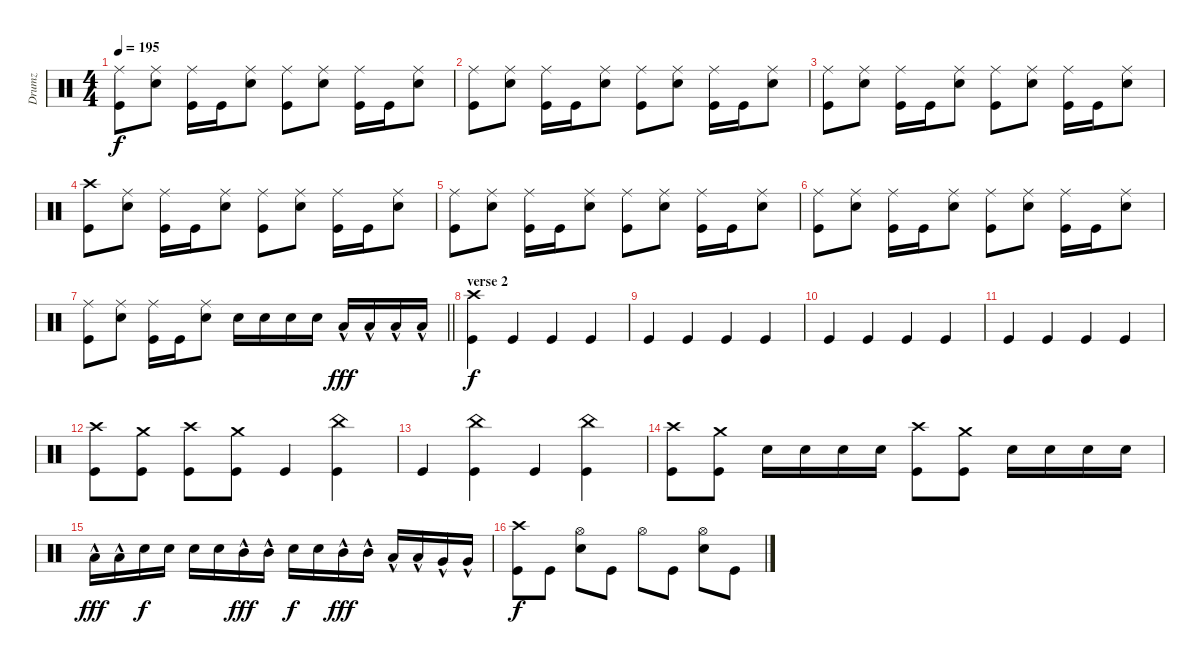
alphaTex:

\track ("Drumz" "Drumz") {instrument percussion}
\staff {score}
\articulation defaults
\ts (4 4)
\tempo 195
\clef neutral
\ks c
("Ride (middle)" "Kick (hit)").8{dy f} ("Ride (middle)" "Electric Snare (hit)").8 ("Ride (middle)" "Kick (hit)").16 "Kick (hit)".16 ("Ride (middle)" "Electric Snare (hit)").8 ("Ride (middle)" "Kick (hit)").8 ("Ride (middle)" "Electric Snare (hit)").8 ("Ride (middle)" "Kick (hit)").16 "Kick (hit)".16 ("Ride (middle)" "Electric Snare (hit)").8 |
("Ride (middle)" "Kick (hit)").8 ("Ride (middle)" "Electric Snare (hit)").8 ("Ride (middle)" "Kick (hit)").16 "Kick (hit)".16 ("Ride (middle)" "Electric Snare (hit)").8 ("Ride (middle)" "Kick (hit)").8 ("Ride (middle)" "Electric Snare (hit)").8 ("Ride (middle)" "Kick (hit)").16 "Kick (hit)".16 ("Ride (middle)" "Electric Snare (hit)").8 |
("Ride (middle)" "Kick (hit)").8 ("Ride (middle)" "Electric Snare (hit)").8 ("Ride (middle)" "Kick (hit)").16 "Kick (hit)".16 ("Ride (middle)" "Electric Snare (hit)").8 ("Ride (middle)" "Kick (hit)").8 ("Ride (middle)" "Electric Snare (hit)").8 ("Ride (middle)" "Kick (hit)").16 "Kick (hit)".16 ("Ride (middle)" "Electric Snare (hit)").8 |
("Crash high (hit)" "Kick (hit)").8 ("Ride (middle)" "Electric Snare (hit)").8 ("Ride (middle)" "Kick (hit)").16 "Kick (hit)".16 ("Ride (middle)" "Electric Snare (hit)").8 ("Ride (middle)" "Kick (hit)").8 ("Ride (middle)" "Electric Snare (hit)").8 ("Ride (middle)" "Kick (hit)").16 "Kick (hit)".16 ("Ride (middle)" "Electric Snare (hit)").8 |
("Ride (middle)" "Kick (hit)").8 ("Ride (middle)" "Electric Snare (hit)").8 ("Ride (middle)" "Kick (hit)").16 "Kick (hit)".16 ("Ride (middle)" "Electric Snare (hit)").8 ("Ride (middle)" "Kick (hit)").8 ("Ride (middle)" "Electric Snare (hit)").8 ("Ride (middle)" "Kick (hit)").16 "Kick (hit)".16 ("Ride (middle)" "Electric Snare (hit)").8 |
("Ride (middle)" "Kick (hit)").8 ("Ride (middle)" "Electric Snare (hit)").8 ("Ride (middle)" "Kick (hit)").16 "Kick (hit)".16 ("Ride (middle)" "Electric Snare (hit)").8 ("Ride (middle)" "Kick (hit)").8 ("Ride (middle)" "Electric Snare (hit)").8 ("Ride (middle)" "Kick (hit)").16 "Kick (hit)".16 ("Ride (middle)" "Electric Snare (hit)").8 |
\barLineRight lightlight
("Ride (middle)" "Kick (hit)").8 ("Ride (middle)" "Electric Snare (hit)").8 ("Ride (middle)" "Kick (hit)").16 "Kick (hit)".16 ("Ride (middle)" "Electric Snare (hit)").8 "Electric Snare (hit)".16 "Electric Snare (hit)".16 "Electric Snare (hit)".16 "Electric Snare (hit)".16 "Low Tom (hit)"{hac}.16{dy fff} "Low Tom (hit)"{hac}.16 "Low Tom (hit)"{hac}.16 "Low Tom (hit)"{hac}.16 |
\section ("" "verse 2")
("Crash high (hit)" "Kick (hit)").4{dy f} "Kick (hit)".4 "Kick (hit)".4 "Kick (hit)".4 |
"Kick (hit)".4 "Kick (hit)".4 "Kick (hit)".4 "Kick (hit)".4 |
"Kick (hit)".4 "Kick (hit)".4 "Kick (hit)".4 "Kick (hit)".4 |
"Kick (hit)".4 "Kick (hit)".4 "Kick (hit)".4 "Kick (hit)".4 |
("Crash high (hit)" "Kick (hit)").8 ("Crash medium (hit)" "Kick (hit)").8 ("Crash high (hit)" "Kick (hit)").8 ("Crash medium (hit)" "Kick (hit)").8 "Kick (hit)".4 ("China (hit)" "Kick (hit)").4 |
"Kick (hit)".4 ("China (hit)" "Kick (hit)").4 "Kick (hit)".4 ("China (hit)" "Kick (hit)").4 |
("Crash high (hit)" "Kick (hit)").8 ("Crash medium (hit)" "Kick (hit)").8 "Electric Snare (hit)".16 "Electric Snare (hit)".16 "Electric Snare (hit)".16 "Electric Snare (hit)".16 ("Crash high (hit)" "Kick (hit)").8 ("Crash medium (hit)" "Kick (hit)").8 "Electric Snare (hit)".16 "Electric Snare (hit)".16 "Electric Snare (hit)".16 "Electric Snare (hit)".16 |
"Low Tom (hit)"{hac}.16{dy fff} "Low Tom (hit)"{hac}.16 "Electric Snare (hit)".16{dy f} "Electric Snare (hit)".16 "Electric Snare (hit)".16 "Electric Snare (hit)".16 "Mid Tom (hit)"{hac}.16{dy fff} "Mid Tom (hit)"{hac}.16 "Electric Snare (hit)".16{dy f} "Electric Snare (hit)".16 "Mid Tom (hit)"{hac}.16{dy fff} "Mid Tom (hit)"{hac}.16 "Low Tom (hit)"{hac}.16 "Low Tom (hit)"{hac}.16 "Very Low Tom (hit)"{hac}.16 "Very Low Tom (hit)"{hac}.16 |
("Crash high (hit)" "Kick (hit)").8{dy f} "Kick (hit)".8 ("Hi-Hat (open)" "Electric Snare (hit)").8 "Kick (hit)".8 "Hi-Hat (open)".8 "Kick (hit)".8 ("Hi-Hat (open)" "Electric Snare (hit)").8 "Kick (hit)".8
